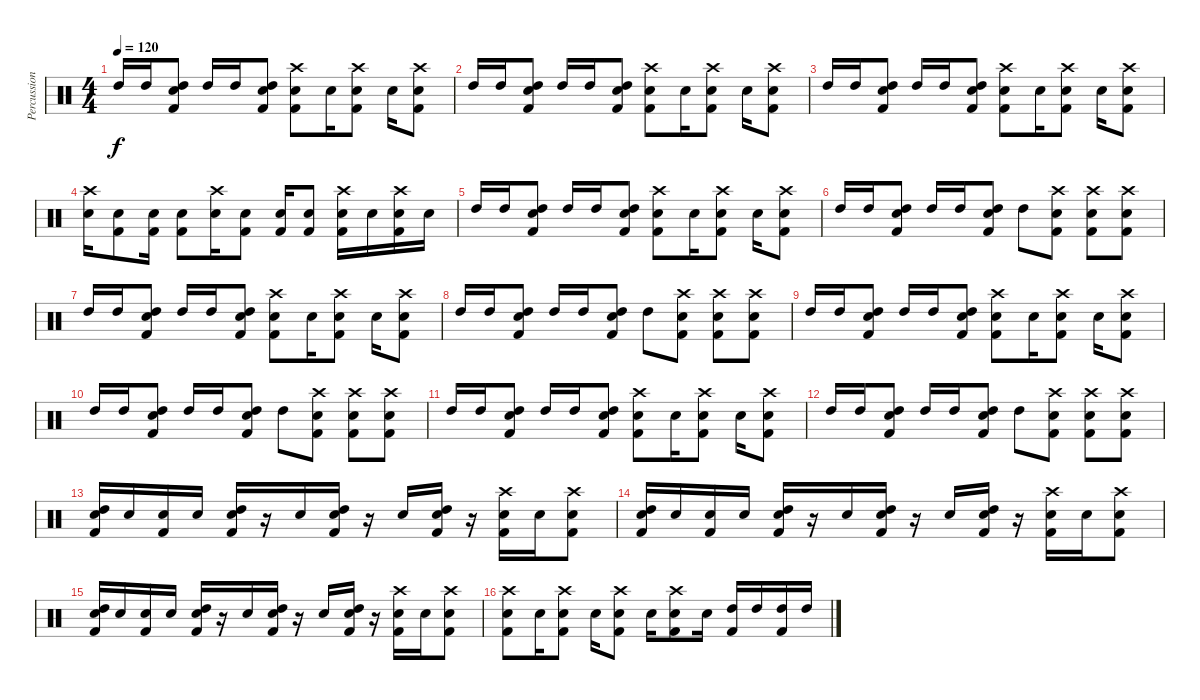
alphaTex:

\track ("Percussion" "Percussion") {instrument percussion}
\staff {score}
\articulation defaults
\ts (4 4)
\tempo 120
\clef neutral
\ks c "High Tom (hit)".16{dy f} "High Tom (hit)".16
("Electric Snare (hit)" "High Tom (hit)" "Kick (hit) 2").8 "High Tom (hit)".16 "High Tom (hit)".16 ("Electric Snare (hit)" "High Tom (hit)" "Kick (hit) 2").8 ("Crash high (hit)" "Electric Snare (hit)" "Kick (hit) 2").8 "Electric Snare (hit)".16 ("Crash high (hit)" "Electric Snare (hit)" "Kick (hit) 2").8 "Electric Snare (hit)".16 ("Crash high (hit)" "Electric Snare (hit)" "Kick (hit) 2").8 |
"High Tom (hit)".16 "High Tom (hit)".16 ("Electric Snare (hit)" "High Tom (hit)" "Kick (hit) 2").8 "High Tom (hit)".16 "High Tom (hit)".16 ("Electric Snare (hit)" "High Tom (hit)" "Kick (hit) 2").8 ("Crash high (hit)" "Electric Snare (hit)" "Kick (hit) 2").8 "Electric Snare (hit)".16 ("Crash high (hit)" "Electric Snare (hit)" "Kick (hit) 2").8 "Electric Snare (hit)".16 ("Crash high (hit)" "Electric Snare (hit)" "Kick (hit) 2").8 |
"High Tom (hit)".16 "High Tom (hit)".16 ("Electric Snare (hit)" "High Tom (hit)" "Kick (hit) 2").8 "High Tom (hit)".16 "High Tom (hit)".16 ("Electric Snare (hit)" "High Tom (hit)" "Kick (hit) 2").8 ("Crash high (hit)" "Electric Snare (hit)" "Kick (hit) 2").8 "Electric Snare (hit)".16 ("Crash high (hit)" "Electric Snare (hit)" "Kick (hit) 2").8 "Electric Snare (hit)".16 ("Crash high (hit)" "Electric Snare (hit)" "Kick (hit) 2").8 |
("Crash high (hit)" "Electric Snare (hit)").16 ("Electric Snare (hit)" "Kick (hit) 2").8 ("Electric Snare (hit)" "Kick (hit) 2").16 ("Electric Snare (hit)" "Kick (hit) 2").8 ("Crash high (hit)" "Electric Snare (hit)").16 ("Electric Snare (hit)" "Kick (hit) 2").8 ("Electric Snare (hit)" "Kick (hit) 2").16 ("Electric Snare (hit)" "Kick (hit) 2").8 ("Crash high (hit)" "Electric Snare (hit)" "Kick (hit) 2").16 "Electric Snare (hit)".16 ("Crash high (hit)" "Electric Snare (hit)" "Kick (hit) 2").16 "Electric Snare (hit)".16 |
"High Tom (hit)".16 "High Tom (hit)".16 ("Electric Snare (hit)" "High Tom (hit)" "Kick (hit) 2").8 "High Tom (hit)".16 "High Tom (hit)".16 ("Electric Snare (hit)" "High Tom (hit)" "Kick (hit) 2").8 ("Crash high (hit)" "Electric Snare (hit)" "Kick (hit) 2").8 "Electric Snare (hit)".16 ("Crash high (hit)" "Electric Snare (hit)" "Kick (hit) 2").8 "Electric Snare (hit)".16 ("Crash high (hit)" "Electric Snare (hit)" "Kick (hit) 2").8 |
"High Tom (hit)".16 "High Tom (hit)".16 ("Electric Snare (hit)" "High Tom (hit)" "Kick (hit) 2").8 "High Tom (hit)".16 "High Tom (hit)".16 ("Electric Snare (hit)" "High Tom (hit)" "Kick (hit) 2").8 "High Tom (hit)".8 ("Electric Snare (hit)" "Crash high (hit)" "Kick (hit) 2").8 ("Electric Snare (hit)" "Crash high (hit)" "Kick (hit) 2").8 ("Electric Snare (hit)" "Crash high (hit)" "Kick (hit) 2").8 |
"High Tom (hit)".16 "High Tom (hit)".16 ("Electric Snare (hit)" "High Tom (hit)" "Kick (hit) 2").8 "High Tom (hit)".16 "High Tom (hit)".16 ("Electric Snare (hit)" "High Tom (hit)" "Kick (hit) 2").8 ("Crash high (hit)" "Electric Snare (hit)" "Kick (hit) 2").8 "Electric Snare (hit)".16 ("Crash high (hit)" "Electric Snare (hit)" "Kick (hit) 2").8 "Electric Snare (hit)".16 ("Crash high (hit)" "Electric Snare (hit)" "Kick (hit) 2").8 |
"High Tom (hit)".16 "High Tom (hit)".16 ("Electric Snare (hit)" "High Tom (hit)" "Kick (hit) 2").8 "High Tom (hit)".16 "High Tom (hit)".16 ("Electric Snare (hit)" "High Tom (hit)" "Kick (hit) 2").8 "High Tom (hit)".8 ("Electric Snare (hit)" "Crash high (hit)" "Kick (hit) 2").8 ("Electric Snare (hit)" "Crash high (hit)" "Kick (hit) 2").8 ("Electric Snare (hit)" "Crash high (hit)" "Kick (hit) 2").8 |
"High Tom (hit)".16 "High Tom (hit)".16 ("Electric Snare (hit)" "High Tom (hit)" "Kick (hit) 2").8 "High Tom (hit)".16 "High Tom (hit)".16 ("Electric Snare (hit)" "High Tom (hit)" "Kick (hit) 2").8 ("Crash high (hit)" "Electric Snare (hit)" "Kick (hit) 2").8 "Electric Snare (hit)".16 ("Crash high (hit)" "Electric Snare (hit)" "Kick (hit) 2").8 "Electric Snare (hit)".16 ("Crash high (hit)" "Electric Snare (hit)" "Kick (hit) 2").8 |
"High Tom (hit)".16 "High Tom (hit)".16 ("Electric Snare (hit)" "High Tom (hit)" "Kick (hit) 2").8 "High Tom (hit)".16 "High Tom (hit)".16 ("Electric Snare (hit)" "High Tom (hit)" "Kick (hit) 2").8 "High Tom (hit)".8 ("Electric Snare (hit)" "Crash high (hit)" "Kick (hit) 2").8 ("Electric Snare (hit)" "Crash high (hit)" "Kick (hit) 2").8 ("Electric Snare (hit)" "Crash high (hit)" "Kick (hit) 2").8 |
"High Tom (hit)".16 "High Tom (hit)".16 ("Electric Snare (hit)" "High Tom (hit)" "Kick (hit) 2").8 "High Tom (hit)".16 "High Tom (hit)".16 ("Electric Snare (hit)" "High Tom (hit)" "Kick (hit) 2").8 ("Crash high (hit)" "Electric Snare (hit)" "Kick (hit) 2").8 "Electric Snare (hit)".16 ("Crash high (hit)" "Electric Snare (hit)" "Kick (hit) 2").8 "Electric Snare (hit)".16 ("Crash high (hit)" "Electric Snare (hit)" "Kick (hit) 2").8 |
"High Tom (hit)".16 "High Tom (hit)".16 ("Electric Snare (hit)" "High Tom (hit)" "Kick (hit) 2").8 "High Tom (hit)".16 "High Tom (hit)".16 ("Electric Snare (hit)" "High Tom (hit)" "Kick (hit) 2").8 "High Tom (hit)".8 ("Electric Snare (hit)" "Crash high (hit)" "Kick (hit) 2").8 ("Electric Snare (hit)" "Crash high (hit)" "Kick (hit) 2").8 ("Electric Snare (hit)" "Crash high (hit)" "Kick (hit) 2").8 |
("High Tom (hit)" "Electric Snare (hit)" "Kick (hit) 2").16 "Electric Snare (hit)".16 ("Electric Snare (hit)" "Kick (hit) 2").16 "Electric Snare (hit)".16 ("High Tom (hit)" "Electric Snare (hit)" "Kick (hit) 2").16 r.16 "Electric Snare (hit)".16 ("High Tom (hit)" "Electric Snare (hit)" "Kick (hit) 2").16 r.16 "Electric Snare (hit)".16 ("High Tom (hit)" "Electric Snare (hit)" "Kick (hit) 2").16 r.16 ("Crash high (hit)" "Electric Snare (hit)" "Kick (hit) 2").16 "Electric Snare (hit)".16 ("Crash high (hit)" "Electric Snare (hit)" "Kick (hit) 2").8 |
("High Tom (hit)" "Electric Snare (hit)" "Kick (hit) 2").16 "Electric Snare (hit)".16 ("Electric Snare (hit)" "Kick (hit) 2").16 "Electric Snare (hit)".16 ("High Tom (hit)" "Electric Snare (hit)" "Kick (hit) 2").16 r.16 "Electric Snare (hit)".16 ("High Tom (hit)" "Electric Snare (hit)" "Kick (hit) 2").16 r.16 "Electric Snare (hit)".16 ("High Tom (hit)" "Electric Snare (hit)" "Kick (hit) 2").16 r.16 ("Crash high (hit)" "Electric Snare (hit)" "Kick (hit) 2").16 "Electric Snare (hit)".16 ("Crash high (hit)" "Electric Snare (hit)" "Kick (hit) 2").8 |
("High Tom (hit)" "Electric Snare (hit)" "Kick (hit) 2").16 "Electric Snare (hit)".16 ("Electric Snare (hit)" "Kick (hit) 2").16 "Electric Snare (hit)".16 ("High Tom (hit)" "Electric Snare (hit)" "Kick (hit) 2").16 r.16 "Electric Snare (hit)".16 ("High Tom (hit)" "Electric Snare (hit)" "Kick (hit) 2").16 r.16 "Electric Snare (hit)".16 ("High Tom (hit)" "Electric Snare (hit)" "Kick (hit) 2").16 r.16 ("Crash high (hit)" "Electric Snare (hit)" "Kick (hit) 2").16 "Electric Snare (hit)".16 ("Crash high (hit)" "Electric Snare (hit)" "Kick (hit) 2").8 |
("Crash high (hit)" "Electric Snare (hit)" "Kick (hit) 2").8 "Electric Snare (hit)".16 ("Crash high (hit)" "Electric Snare (hit)" "Kick (hit) 2").8 "Electric Snare (hit)".16 ("Crash high (hit)" "Electric Snare (hit)" "Kick (hit) 2").8 "Electric Snare (hit)".16 ("Crash high (hit)" "Electric Snare (hit)" "Kick (hit) 2").8 "Electric Snare (hit)".16 ("High Tom (hit)" "Kick (hit) 2").16 "High Tom (hit)".16 ("High Tom (hit)" "Kick (hit) 2").16 "High Tom (hit)".16
